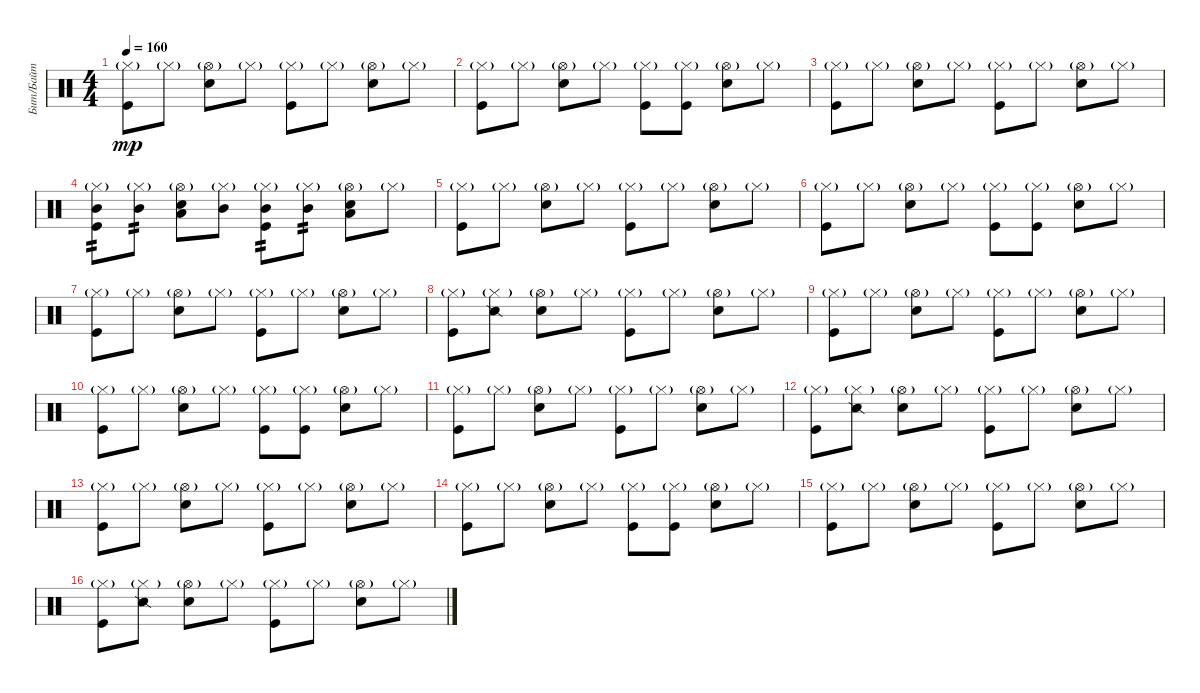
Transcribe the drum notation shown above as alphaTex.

\track ("Бит/Байт" "Бит/Байт") {instrument percussion}
\staff {score}
\articulation defaults
\ts (4 4)
\tempo 160
\clef neutral
\ks c
("Hi-Hat (closed)"{g} "Kick (hit)").8{dy mp} "Hi-Hat (closed)"{g}.8 ("Hi-Hat (open)"{g} "Snare (hit) 2").8 "Hi-Hat (closed)"{g}.8 ("Hi-Hat (closed)"{g} "Kick (hit)").8 "Hi-Hat (closed)"{g}.8 ("Hi-Hat (open)"{g} "Snare (hit) 2").8 "Hi-Hat (closed)"{g}.8 |
("Hi-Hat (closed)"{g} "Kick (hit)").8 "Hi-Hat (closed)"{g}.8 ("Hi-Hat (open)"{g} "Snare (hit) 2").8 "Hi-Hat (closed)"{g}.8 ("Hi-Hat (closed)"{g} "Kick (hit)").8 ("Hi-Hat (closed)"{g} "Kick (hit)").8 ("Hi-Hat (open)"{g} "Snare (hit) 2").8 "Hi-Hat (closed)"{g}.8 |
("Hi-Hat (closed)"{g} "Kick (hit)").8 "Hi-Hat (closed)"{g}.8 ("Hi-Hat (open)"{g} "Snare (hit) 2").8 "Hi-Hat (closed)"{g}.8 ("Hi-Hat (closed)"{g} "Kick (hit)").8 "Hi-Hat (closed)"{g}.8 ("Hi-Hat (open)"{g} "Snare (hit) 2").8 "Hi-Hat (closed)"{g}.8 |
("Hi-Hat (closed)"{g} "Mid Tom (hit)" "Kick (hit)").8{tp 2} ("Hi-Hat (closed)"{g} "Mid Tom (hit)").8{tp 2} ("Hi-Hat (open)"{g} "Low Tom (hit)" "Snare (hit) 2").8 ("Hi-Hat (closed)"{g} "Mid Tom (hit)").8 ("Hi-Hat (closed)"{g} "Mid Tom (hit)" "Kick (hit)").8{tp 2} ("Hi-Hat (closed)"{g} "Mid Tom (hit)").8{tp 2} ("Hi-Hat (open)"{g} "Low Tom (hit)" "Snare (hit) 2").8 "Hi-Hat (closed)"{g}.8 |
("Hi-Hat (closed)"{g} "Kick (hit)").8 "Hi-Hat (closed)"{g}.8 ("Hi-Hat (open)"{g} "Snare (hit) 2").8 "Hi-Hat (closed)"{g}.8 ("Hi-Hat (closed)"{g} "Kick (hit)").8 "Hi-Hat (closed)"{g}.8 ("Hi-Hat (open)"{g} "Snare (hit) 2").8 "Hi-Hat (closed)"{g}.8 |
("Hi-Hat (closed)"{g} "Kick (hit)").8 "Hi-Hat (closed)"{g}.8 ("Hi-Hat (open)"{g} "Snare (hit) 2").8 "Hi-Hat (closed)"{g}.8 ("Hi-Hat (closed)"{g} "Kick (hit)").8 ("Hi-Hat (closed)"{g} "Kick (hit)").8 ("Hi-Hat (open)"{g} "Snare (hit) 2").8 "Hi-Hat (closed)"{g}.8 |
("Hi-Hat (closed)"{g} "Kick (hit)").8 "Hi-Hat (closed)"{g}.8 ("Hi-Hat (open)"{g} "Snare (hit) 2").8 "Hi-Hat (closed)"{g}.8 ("Hi-Hat (closed)"{g} "Kick (hit)").8 "Hi-Hat (closed)"{g}.8 ("Hi-Hat (open)"{g} "Snare (hit) 2").8 "Hi-Hat (closed)"{g}.8 |
("Hi-Hat (closed)"{g} "Kick (hit)").8 ("Hi-Hat (closed)"{g} "Snare (side stick) 2").8 ("Hi-Hat (open)"{g} "Snare (hit) 2").8 "Hi-Hat (closed)"{g}.8 ("Hi-Hat (closed)"{g} "Kick (hit)").8 "Hi-Hat (closed)"{g}.8 ("Hi-Hat (open)"{g} "Snare (hit) 2").8 "Hi-Hat (closed)"{g}.8 |
("Hi-Hat (closed)"{g} "Kick (hit)").8 "Hi-Hat (closed)"{g}.8 ("Hi-Hat (open)"{g} "Snare (hit) 2").8 "Hi-Hat (closed)"{g}.8 ("Hi-Hat (closed)"{g} "Kick (hit)").8 "Hi-Hat (closed)"{g}.8 ("Hi-Hat (open)"{g} "Snare (hit) 2").8 "Hi-Hat (closed)"{g}.8 |
("Hi-Hat (closed)"{g} "Kick (hit)").8 "Hi-Hat (closed)"{g}.8 ("Hi-Hat (open)"{g} "Snare (hit) 2").8 "Hi-Hat (closed)"{g}.8 ("Hi-Hat (closed)"{g} "Kick (hit)").8 ("Hi-Hat (closed)"{g} "Kick (hit)").8 ("Hi-Hat (open)"{g} "Snare (hit) 2").8 "Hi-Hat (closed)"{g}.8 |
("Hi-Hat (closed)"{g} "Kick (hit)").8 "Hi-Hat (closed)"{g}.8 ("Hi-Hat (open)"{g} "Snare (hit) 2").8 "Hi-Hat (closed)"{g}.8 ("Hi-Hat (closed)"{g} "Kick (hit)").8 "Hi-Hat (closed)"{g}.8 ("Hi-Hat (open)"{g} "Snare (hit) 2").8 "Hi-Hat (closed)"{g}.8 |
("Hi-Hat (closed)"{g} "Kick (hit)").8 ("Hi-Hat (closed)"{g} "Snare (side stick) 2").8 ("Hi-Hat (open)"{g} "Snare (hit) 2").8 "Hi-Hat (closed)"{g}.8 ("Hi-Hat (closed)"{g} "Kick (hit)").8 "Hi-Hat (closed)"{g}.8 ("Hi-Hat (open)"{g} "Snare (hit) 2").8 "Hi-Hat (closed)"{g}.8 |
("Hi-Hat (closed)"{g} "Kick (hit)").8 "Hi-Hat (closed)"{g}.8 ("Hi-Hat (open)"{g} "Snare (hit) 2").8 "Hi-Hat (closed)"{g}.8 ("Hi-Hat (closed)"{g} "Kick (hit)").8 "Hi-Hat (closed)"{g}.8 ("Hi-Hat (open)"{g} "Snare (hit) 2").8 "Hi-Hat (closed)"{g}.8 |
("Hi-Hat (closed)"{g} "Kick (hit)").8 "Hi-Hat (closed)"{g}.8 ("Hi-Hat (open)"{g} "Snare (hit) 2").8 "Hi-Hat (closed)"{g}.8 ("Hi-Hat (closed)"{g} "Kick (hit)").8 ("Hi-Hat (closed)"{g} "Kick (hit)").8 ("Hi-Hat (open)"{g} "Snare (hit) 2").8 "Hi-Hat (closed)"{g}.8 |
("Hi-Hat (closed)"{g} "Kick (hit)").8 "Hi-Hat (closed)"{g}.8 ("Hi-Hat (open)"{g} "Snare (hit) 2").8 "Hi-Hat (closed)"{g}.8 ("Hi-Hat (closed)"{g} "Kick (hit)").8 "Hi-Hat (closed)"{g}.8 ("Hi-Hat (open)"{g} "Snare (hit) 2").8 "Hi-Hat (closed)"{g}.8 |
("Hi-Hat (closed)"{g} "Kick (hit)").8 ("Hi-Hat (closed)"{g} "Snare (side stick) 2").8 ("Hi-Hat (open)"{g} "Snare (hit) 2").8 "Hi-Hat (closed)"{g}.8 ("Hi-Hat (closed)"{g} "Kick (hit)").8 "Hi-Hat (closed)"{g}.8 ("Hi-Hat (open)"{g} "Snare (hit) 2").8 "Hi-Hat (closed)"{g}.8
